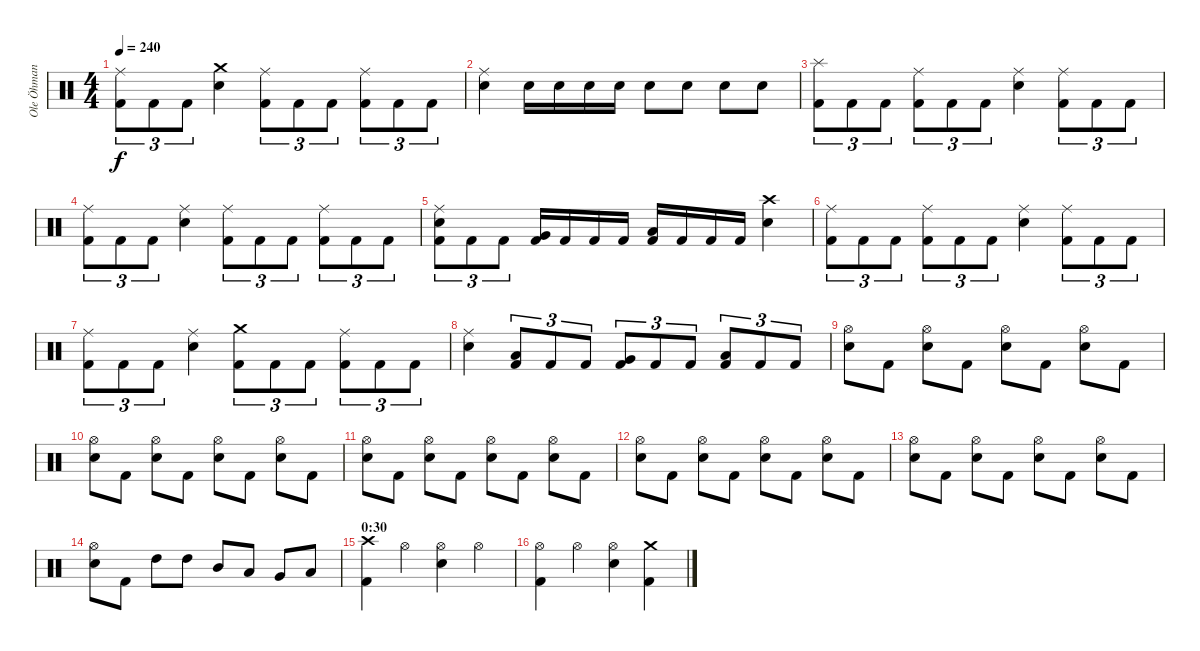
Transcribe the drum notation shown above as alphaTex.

\track ("Ole Öhman" "Ole Öhman") {instrument percussion}
\staff {score}
\articulation defaults
\ts (4 4)
\tempo 240
\clef neutral
\ks c
("Ride (middle)" "Kick (hit) 2").8{tu (3 2) dy f} "Kick (hit) 2".8{tu (3 2)} "Kick (hit) 2".8{tu (3 2)} ("Crash medium (hit)" "Electric Snare (hit)").4 ("Ride (middle)" "Kick (hit) 2").8{tu (3 2)} "Kick (hit) 2".8{tu (3 2)} "Kick (hit) 2".8{tu (3 2)} ("Ride (middle)" "Kick (hit) 2").8{tu (3 2)} "Kick (hit) 2".8{tu (3 2)} "Kick (hit) 2".8{tu (3 2)} |
("Ride (middle)" "Electric Snare (hit)").4 "Electric Snare (hit)".16 "Electric Snare (hit)".16 "Electric Snare (hit)".16 "Electric Snare (hit)".16 "Electric Snare (hit)".8 "Electric Snare (hit)".8 "Electric Snare (hit)".8 "Electric Snare (hit)".8 |
("Splash (hit)" "Kick (hit) 2").8{tu (3 2)} "Kick (hit) 2".8{tu (3 2)} "Kick (hit) 2".8{tu (3 2)} ("Ride (middle)" "Kick (hit) 2").8{tu (3 2)} "Kick (hit) 2".8{tu (3 2)} "Kick (hit) 2".8{tu (3 2)} ("Ride (middle)" "Electric Snare (hit)").4 ("Ride (middle)" "Kick (hit) 2").8{tu (3 2)} "Kick (hit) 2".8{tu (3 2)} "Kick (hit) 2".8{tu (3 2)} |
("Ride (middle)" "Kick (hit) 2").8{tu (3 2)} "Kick (hit) 2".8{tu (3 2)} "Kick (hit) 2".8{tu (3 2)} ("Ride (middle)" "Electric Snare (hit)").4 ("Ride (middle)" "Kick (hit) 2").8{tu (3 2)} "Kick (hit) 2".8{tu (3 2)} "Kick (hit) 2".8{tu (3 2)} ("Ride (middle)" "Kick (hit) 2").8{tu (3 2)} "Kick (hit) 2".8{tu (3 2)} "Kick (hit) 2".8{tu (3 2)} |
("Ride (middle)" "Electric Snare (hit)" "Kick (hit) 2").8{tu (3 2)} "Kick (hit) 2".8{tu (3 2)} "Kick (hit) 2".8{tu (3 2)} ("Very Low Tom (hit)" "Kick (hit) 2").16 "Kick (hit) 2".16 "Kick (hit) 2".16 "Kick (hit) 2".16 ("Low Floor Tom (hit)" "Kick (hit) 2").16 "Kick (hit) 2".16 "Kick (hit) 2".16 "Kick (hit) 2".16 ("Crash high (hit)" "Electric Snare (hit)").4 |
("Ride (middle)" "Kick (hit) 2").8{tu (3 2)} "Kick (hit) 2".8{tu (3 2)} "Kick (hit) 2".8{tu (3 2)} ("Ride (middle)" "Kick (hit) 2").8{tu (3 2)} "Kick (hit) 2".8{tu (3 2)} "Kick (hit) 2".8{tu (3 2)} ("Ride (middle)" "Electric Snare (hit)").4 ("Ride (middle)" "Kick (hit) 2").8{tu (3 2)} "Kick (hit) 2".8{tu (3 2)} "Kick (hit) 2".8{tu (3 2)} |
("Ride (middle)" "Kick (hit) 2").8{tu (3 2)} "Kick (hit) 2".8{tu (3 2)} "Kick (hit) 2".8{tu (3 2)} ("Ride (middle)" "Electric Snare (hit)").4 ("Crash medium (hit)" "Kick (hit) 2").8{tu (3 2)} "Kick (hit) 2".8{tu (3 2)} "Kick (hit) 2".8{tu (3 2)} ("Ride (middle)" "Kick (hit) 2").8{tu (3 2)} "Kick (hit) 2".8{tu (3 2)} "Kick (hit) 2".8{tu (3 2)} |
("Ride (middle)" "Electric Snare (hit)").4 ("Low Tom (hit)" "Kick (hit) 2").8{tu (3 2)} "Kick (hit) 2".8{tu (3 2)} "Kick (hit) 2".8{tu (3 2)} ("Very Low Tom (hit)" "Kick (hit) 2").8{tu (3 2)} "Kick (hit) 2".8{tu (3 2)} "Kick (hit) 2".8{tu (3 2)} ("Low Floor Tom (hit)" "Kick (hit) 2").8{tu (3 2)} "Kick (hit) 2".8{tu (3 2)} "Kick (hit) 2".8{tu (3 2)} |
("Hi-Hat (open)" "Electric Snare (hit)").8 "Kick (hit) 2".8 ("Hi-Hat (open)" "Electric Snare (hit)").8 "Kick (hit) 2".8 ("Hi-Hat (open)" "Electric Snare (hit)").8 "Kick (hit) 2".8 ("Hi-Hat (open)" "Electric Snare (hit)").8 "Kick (hit) 2".8 |
("Hi-Hat (open)" "Electric Snare (hit)").8 "Kick (hit) 2".8 ("Hi-Hat (open)" "Electric Snare (hit)").8 "Kick (hit) 2".8 ("Hi-Hat (open)" "Electric Snare (hit)").8 "Kick (hit) 2".8 ("Hi-Hat (open)" "Electric Snare (hit)").8 "Kick (hit) 2".8 |
("Hi-Hat (open)" "Electric Snare (hit)").8 "Kick (hit) 2".8 ("Hi-Hat (open)" "Electric Snare (hit)").8 "Kick (hit) 2".8 ("Hi-Hat (open)" "Electric Snare (hit)").8 "Kick (hit) 2".8 ("Hi-Hat (open)" "Electric Snare (hit)").8 "Kick (hit) 2".8 |
("Hi-Hat (open)" "Electric Snare (hit)").8 "Kick (hit) 2".8 ("Hi-Hat (open)" "Electric Snare (hit)").8 "Kick (hit) 2".8 ("Hi-Hat (open)" "Electric Snare (hit)").8 "Kick (hit) 2".8 ("Hi-Hat (open)" "Electric Snare (hit)").8 "Kick (hit) 2".8 |
("Hi-Hat (open)" "Electric Snare (hit)").8 "Kick (hit) 2".8 ("Hi-Hat (open)" "Electric Snare (hit)").8 "Kick (hit) 2".8 ("Hi-Hat (open)" "Electric Snare (hit)").8 "Kick (hit) 2".8 ("Hi-Hat (open)" "Electric Snare (hit)").8 "Kick (hit) 2".8 |
("Hi-Hat (open)" "Electric Snare (hit)").8 "Kick (hit) 2".8 "High Tom (hit)".8 "High Tom (hit)".8 "Mid Tom (hit)".8 "Low Tom (hit)".8 "Very Low Tom (hit)".8 "Low Floor Tom (hit)".8 |
\section ("" "0:30")
("Crash high (hit)" "Kick (hit) 2").4 "Hi-Hat (open)".4 ("Hi-Hat (open)" "Electric Snare (hit)").4 "Hi-Hat (open)".4 |
("Hi-Hat (open)" "Kick (hit) 2").4 "Hi-Hat (open)".4 ("Hi-Hat (open)" "Electric Snare (hit)").4 ("Crash medium (hit)" "Kick (hit) 2").4
